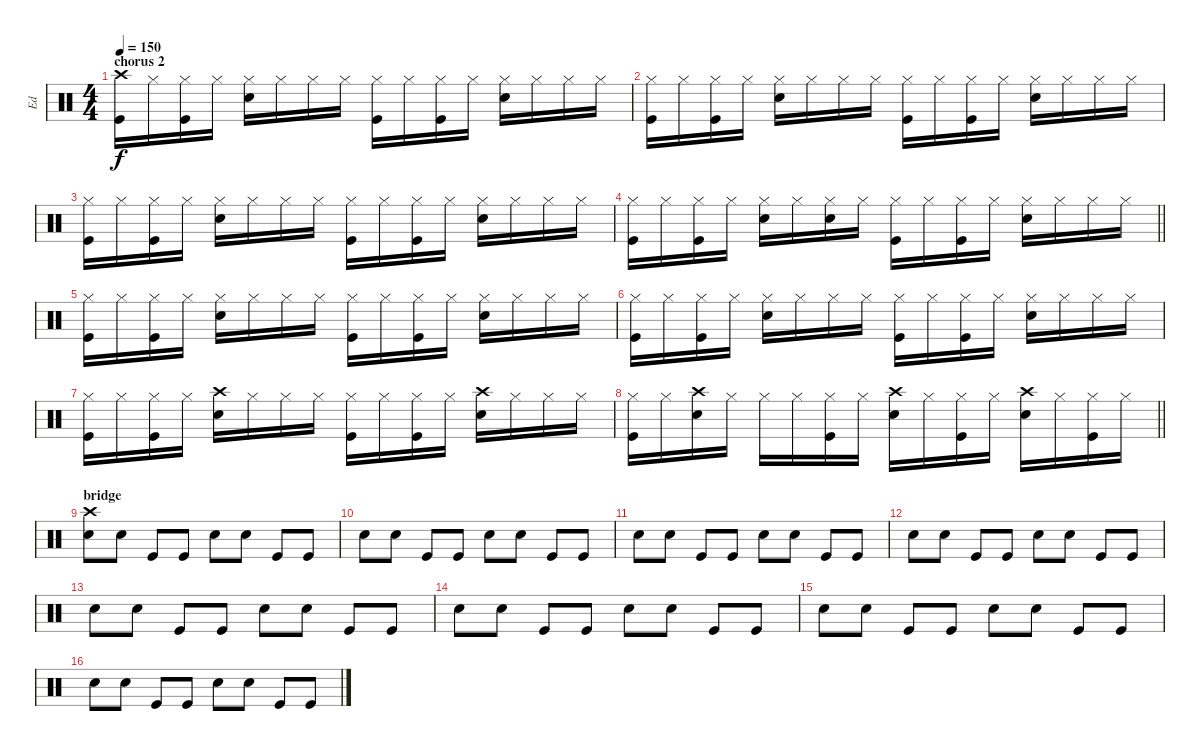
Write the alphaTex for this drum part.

\track ("Ed" "Ed") {instrument percussion}
\staff {score}
\articulation defaults
\ts (4 4)
\section ("" "chorus 2")
\tempo 150
\clef neutral
\ks c
("Crash high (hit)" "Kick (hit)").16{dy f} "Hi-Hat (closed)".16 ("Hi-Hat (closed)" "Kick (hit)").16 "Hi-Hat (closed)".16 ("Hi-Hat (closed)" "Electric Snare (hit)").16 "Hi-Hat (closed)".16 "Hi-Hat (closed)".16 "Hi-Hat (closed)".16 ("Hi-Hat (closed)" "Kick (hit)").16 "Hi-Hat (closed)".16 ("Hi-Hat (closed)" "Kick (hit)").16 "Hi-Hat (closed)".16 ("Hi-Hat (closed)" "Electric Snare (hit)").16 "Hi-Hat (closed)".16 "Hi-Hat (closed)".16 "Hi-Hat (closed)".16 |
("Hi-Hat (closed)" "Kick (hit)").16 "Hi-Hat (closed)".16 ("Hi-Hat (closed)" "Kick (hit)").16 "Hi-Hat (closed)".16 ("Hi-Hat (closed)" "Electric Snare (hit)").16 "Hi-Hat (closed)".16 "Hi-Hat (closed)".16 "Hi-Hat (closed)".16 ("Hi-Hat (closed)" "Kick (hit)").16 "Hi-Hat (closed)".16 ("Hi-Hat (closed)" "Kick (hit)").16 "Hi-Hat (closed)".16 ("Hi-Hat (closed)" "Electric Snare (hit)").16 "Hi-Hat (closed)".16 "Hi-Hat (closed)".16 "Hi-Hat (closed)".16 |
("Hi-Hat (closed)" "Kick (hit)").16 "Hi-Hat (closed)".16 ("Hi-Hat (closed)" "Kick (hit)").16 "Hi-Hat (closed)".16 ("Hi-Hat (closed)" "Electric Snare (hit)").16 "Hi-Hat (closed)".16 "Hi-Hat (closed)".16 "Hi-Hat (closed)".16 ("Hi-Hat (closed)" "Kick (hit)").16 "Hi-Hat (closed)".16 ("Hi-Hat (closed)" "Kick (hit)").16 "Hi-Hat (closed)".16 ("Hi-Hat (closed)" "Electric Snare (hit)").16 "Hi-Hat (closed)".16 "Hi-Hat (closed)".16 "Hi-Hat (closed)".16 |
\barLineRight lightlight
("Hi-Hat (closed)" "Kick (hit)").16 "Hi-Hat (closed)".16 ("Hi-Hat (closed)" "Kick (hit)").16 "Hi-Hat (closed)".16 ("Hi-Hat (closed)" "Electric Snare (hit)").16 "Hi-Hat (closed)".16 ("Hi-Hat (closed)" "Electric Snare (hit)").16 "Hi-Hat (closed)".16 ("Hi-Hat (closed)" "Kick (hit)").16 "Hi-Hat (closed)".16 ("Hi-Hat (closed)" "Kick (hit)").16 "Hi-Hat (closed)".16 ("Hi-Hat (closed)" "Electric Snare (hit)").16 "Hi-Hat (closed)".16 "Hi-Hat (closed)".16 "Hi-Hat (closed)".16 |
("Hi-Hat (closed)" "Kick (hit)").16 "Hi-Hat (closed)".16 ("Hi-Hat (closed)" "Kick (hit)").16 "Hi-Hat (closed)".16 ("Hi-Hat (closed)" "Electric Snare (hit)").16 "Hi-Hat (closed)".16 "Hi-Hat (closed)".16 "Hi-Hat (closed)".16 ("Hi-Hat (closed)" "Kick (hit)").16 "Hi-Hat (closed)".16 ("Hi-Hat (closed)" "Kick (hit)").16 "Hi-Hat (closed)".16 ("Hi-Hat (closed)" "Electric Snare (hit)").16 "Hi-Hat (closed)".16 "Hi-Hat (closed)".16 "Hi-Hat (closed)".16 |
("Hi-Hat (closed)" "Kick (hit)").16 "Hi-Hat (closed)".16 ("Hi-Hat (closed)" "Kick (hit)").16 "Hi-Hat (closed)".16 ("Hi-Hat (closed)" "Electric Snare (hit)").16 "Hi-Hat (closed)".16 "Hi-Hat (closed)".16 "Hi-Hat (closed)".16 ("Hi-Hat (closed)" "Kick (hit)").16 "Hi-Hat (closed)".16 ("Hi-Hat (closed)" "Kick (hit)").16 "Hi-Hat (closed)".16 ("Hi-Hat (closed)" "Electric Snare (hit)").16 "Hi-Hat (closed)".16 "Hi-Hat (closed)".16 "Hi-Hat (closed)".16 |
("Hi-Hat (closed)" "Kick (hit)").16 "Hi-Hat (closed)".16 ("Hi-Hat (closed)" "Kick (hit)").16 "Hi-Hat (closed)".16 ("Crash high (hit)" "Electric Snare (hit)").16 "Hi-Hat (closed)".16 "Hi-Hat (closed)".16 "Hi-Hat (closed)".16 ("Hi-Hat (closed)" "Kick (hit)").16 "Hi-Hat (closed)".16 ("Hi-Hat (closed)" "Kick (hit)").16 "Hi-Hat (closed)".16 ("Crash high (hit)" "Electric Snare (hit)").16 "Hi-Hat (closed)".16 "Hi-Hat (closed)".16 "Hi-Hat (closed)".16 |
\barLineRight lightlight
("Hi-Hat (closed)" "Kick (hit)").16 "Hi-Hat (closed)".16 ("Crash high (hit)" "Electric Snare (hit)").16 "Hi-Hat (closed)".16 "Hi-Hat (closed)".16 "Hi-Hat (closed)".16 ("Hi-Hat (closed)" "Kick (hit)").16 "Hi-Hat (closed)".16 ("Crash high (hit)" "Electric Snare (hit)").16 "Hi-Hat (closed)".16 ("Hi-Hat (closed)" "Kick (hit)").16 "Hi-Hat (closed)".16 ("Crash high (hit)" "Electric Snare (hit)").16 "Hi-Hat (closed)".16 ("Hi-Hat (closed)" "Kick (hit)").16 "Hi-Hat (closed)".16 |
\section ("" "bridge")
("Crash high (hit)" "Electric Snare (hit)").8 "Electric Snare (hit)".8 "Kick (hit)".8 "Kick (hit)".8 "Electric Snare (hit)".8 "Electric Snare (hit)".8 "Kick (hit)".8 "Kick (hit)".8 |
"Electric Snare (hit)".8 "Electric Snare (hit)".8 "Kick (hit)".8 "Kick (hit)".8 "Electric Snare (hit)".8 "Electric Snare (hit)".8 "Kick (hit)".8 "Kick (hit)".8 |
"Electric Snare (hit)".8 "Electric Snare (hit)".8 "Kick (hit)".8 "Kick (hit)".8 "Electric Snare (hit)".8 "Electric Snare (hit)".8 "Kick (hit)".8 "Kick (hit)".8 |
"Electric Snare (hit)".8 "Electric Snare (hit)".8 "Kick (hit)".8 "Kick (hit)".8 "Electric Snare (hit)".8 "Electric Snare (hit)".8 "Kick (hit)".8 "Kick (hit)".8 |
"Electric Snare (hit)".8 "Electric Snare (hit)".8 "Kick (hit)".8 "Kick (hit)".8 "Electric Snare (hit)".8 "Electric Snare (hit)".8 "Kick (hit)".8 "Kick (hit)".8 |
"Electric Snare (hit)".8 "Electric Snare (hit)".8 "Kick (hit)".8 "Kick (hit)".8 "Electric Snare (hit)".8 "Electric Snare (hit)".8 "Kick (hit)".8 "Kick (hit)".8 |
"Electric Snare (hit)".8 "Electric Snare (hit)".8 "Kick (hit)".8 "Kick (hit)".8 "Electric Snare (hit)".8 "Electric Snare (hit)".8 "Kick (hit)".8 "Kick (hit)".8 |
"Electric Snare (hit)".8 "Electric Snare (hit)".8 "Kick (hit)".8 "Kick (hit)".8 "Electric Snare (hit)".8 "Electric Snare (hit)".8 "Kick (hit)".8 "Kick (hit)".8
